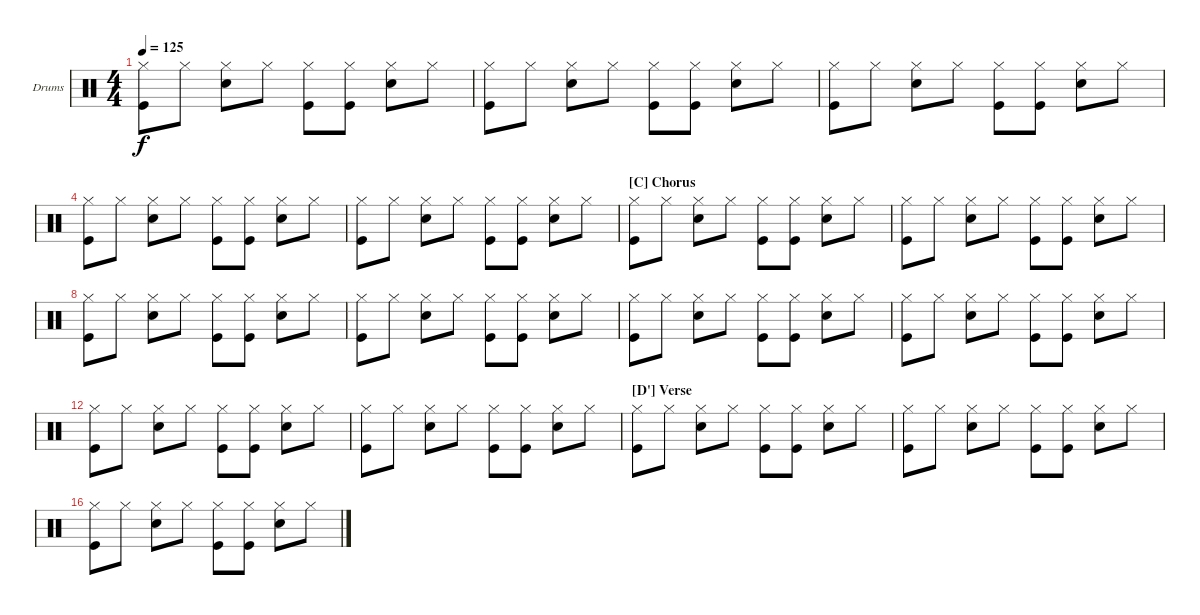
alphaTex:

\bracketExtendMode nobrackets
\firstSystemTrackNameOrientation horizontal
\otherSystemsTrackNameOrientation horizontal
\defaultBarNumberDisplay FirstOfSystem
\track ("Drumkit" "Drums") {instrument percussion}
\staff {score}
\articulation defaults
\ts (4 4)
\tempo 125
\clef neutral
\ks c
("Hi-Hat (closed)" "Kick (hit)").8{dy f} "Hi-Hat (closed)".8 ("Hi-Hat (closed)" "Snare (hit) 2").8 "Hi-Hat (closed)".8 ("Hi-Hat (closed)" "Kick (hit)").8 ("Hi-Hat (closed)" "Kick (hit)").8 ("Hi-Hat (closed)" "Snare (hit) 2").8 "Hi-Hat (closed)".8 |
("Hi-Hat (closed)" "Kick (hit)").8 "Hi-Hat (closed)".8 ("Hi-Hat (closed)" "Snare (hit) 2").8 "Hi-Hat (closed)".8 ("Hi-Hat (closed)" "Kick (hit)").8 ("Hi-Hat (closed)" "Kick (hit)").8 ("Hi-Hat (closed)" "Snare (hit) 2").8 "Hi-Hat (closed)".8 |
("Hi-Hat (closed)" "Kick (hit)").8 "Hi-Hat (closed)".8 ("Hi-Hat (closed)" "Snare (hit) 2").8 "Hi-Hat (closed)".8 ("Hi-Hat (closed)" "Kick (hit)").8 ("Hi-Hat (closed)" "Kick (hit)").8 ("Hi-Hat (closed)" "Snare (hit) 2").8 "Hi-Hat (closed)".8 |
("Hi-Hat (closed)" "Kick (hit)").8 "Hi-Hat (closed)".8 ("Hi-Hat (closed)" "Snare (hit) 2").8 "Hi-Hat (closed)".8 ("Hi-Hat (closed)" "Kick (hit)").8 ("Hi-Hat (closed)" "Kick (hit)").8 ("Hi-Hat (closed)" "Snare (hit) 2").8 "Hi-Hat (closed)".8 |
("Hi-Hat (closed)" "Kick (hit)").8 "Hi-Hat (closed)".8 ("Hi-Hat (closed)" "Snare (hit) 2").8 "Hi-Hat (closed)".8 ("Hi-Hat (closed)" "Kick (hit)").8 ("Hi-Hat (closed)" "Kick (hit)").8 ("Hi-Hat (closed)" "Snare (hit) 2").8 "Hi-Hat (closed)".8 |
\section ("C" "Chorus")
("Hi-Hat (closed)" "Kick (hit)").8 "Hi-Hat (closed)".8 ("Hi-Hat (closed)" "Snare (hit) 2").8 "Hi-Hat (closed)".8 ("Hi-Hat (closed)" "Kick (hit)").8 ("Hi-Hat (closed)" "Kick (hit)").8 ("Hi-Hat (closed)" "Snare (hit) 2").8 "Hi-Hat (closed)".8 |
("Hi-Hat (closed)" "Kick (hit)").8 "Hi-Hat (closed)".8 ("Hi-Hat (closed)" "Snare (hit) 2").8 "Hi-Hat (closed)".8 ("Hi-Hat (closed)" "Kick (hit)").8 ("Hi-Hat (closed)" "Kick (hit)").8 ("Hi-Hat (closed)" "Snare (hit) 2").8 "Hi-Hat (closed)".8 |
("Hi-Hat (closed)" "Kick (hit)").8 "Hi-Hat (closed)".8 ("Hi-Hat (closed)" "Snare (hit) 2").8 "Hi-Hat (closed)".8 ("Hi-Hat (closed)" "Kick (hit)").8 ("Hi-Hat (closed)" "Kick (hit)").8 ("Hi-Hat (closed)" "Snare (hit) 2").8 "Hi-Hat (closed)".8 |
("Hi-Hat (closed)" "Kick (hit)").8 "Hi-Hat (closed)".8 ("Hi-Hat (closed)" "Snare (hit) 2").8 "Hi-Hat (closed)".8 ("Hi-Hat (closed)" "Kick (hit)").8 ("Hi-Hat (closed)" "Kick (hit)").8 ("Hi-Hat (closed)" "Snare (hit) 2").8 "Hi-Hat (closed)".8 |
("Hi-Hat (closed)" "Kick (hit)").8 "Hi-Hat (closed)".8 ("Hi-Hat (closed)" "Snare (hit) 2").8 "Hi-Hat (closed)".8 ("Hi-Hat (closed)" "Kick (hit)").8 ("Hi-Hat (closed)" "Kick (hit)").8 ("Hi-Hat (closed)" "Snare (hit) 2").8 "Hi-Hat (closed)".8 |
("Hi-Hat (closed)" "Kick (hit)").8 "Hi-Hat (closed)".8 ("Hi-Hat (closed)" "Snare (hit) 2").8 "Hi-Hat (closed)".8 ("Hi-Hat (closed)" "Kick (hit)").8 ("Hi-Hat (closed)" "Kick (hit)").8 ("Hi-Hat (closed)" "Snare (hit) 2").8 "Hi-Hat (closed)".8 |
("Hi-Hat (closed)" "Kick (hit)").8 "Hi-Hat (closed)".8 ("Hi-Hat (closed)" "Snare (hit) 2").8 "Hi-Hat (closed)".8 ("Hi-Hat (closed)" "Kick (hit)").8 ("Hi-Hat (closed)" "Kick (hit)").8 ("Hi-Hat (closed)" "Snare (hit) 2").8 "Hi-Hat (closed)".8 |
("Hi-Hat (closed)" "Kick (hit)").8 "Hi-Hat (closed)".8 ("Hi-Hat (closed)" "Snare (hit) 2").8 "Hi-Hat (closed)".8 ("Hi-Hat (closed)" "Kick (hit)").8 ("Hi-Hat (closed)" "Kick (hit)").8 ("Hi-Hat (closed)" "Snare (hit) 2").8 "Hi-Hat (closed)".8 |
\section ("D'" "Verse")
("Hi-Hat (closed)" "Kick (hit)").8 "Hi-Hat (closed)".8 ("Hi-Hat (closed)" "Snare (hit) 2").8 "Hi-Hat (closed)".8 ("Hi-Hat (closed)" "Kick (hit)").8 ("Hi-Hat (closed)" "Kick (hit)").8 ("Hi-Hat (closed)" "Snare (hit) 2").8 "Hi-Hat (closed)".8 |
("Hi-Hat (closed)" "Kick (hit)").8 "Hi-Hat (closed)".8 ("Hi-Hat (closed)" "Snare (hit) 2").8 "Hi-Hat (closed)".8 ("Hi-Hat (closed)" "Kick (hit)").8 ("Hi-Hat (closed)" "Kick (hit)").8 ("Hi-Hat (closed)" "Snare (hit) 2").8 "Hi-Hat (closed)".8 |
("Hi-Hat (closed)" "Kick (hit)").8 "Hi-Hat (closed)".8 ("Hi-Hat (closed)" "Snare (hit) 2").8 "Hi-Hat (closed)".8 ("Hi-Hat (closed)" "Kick (hit)").8 ("Hi-Hat (closed)" "Kick (hit)").8 ("Hi-Hat (closed)" "Snare (hit) 2").8 "Hi-Hat (closed)".8
